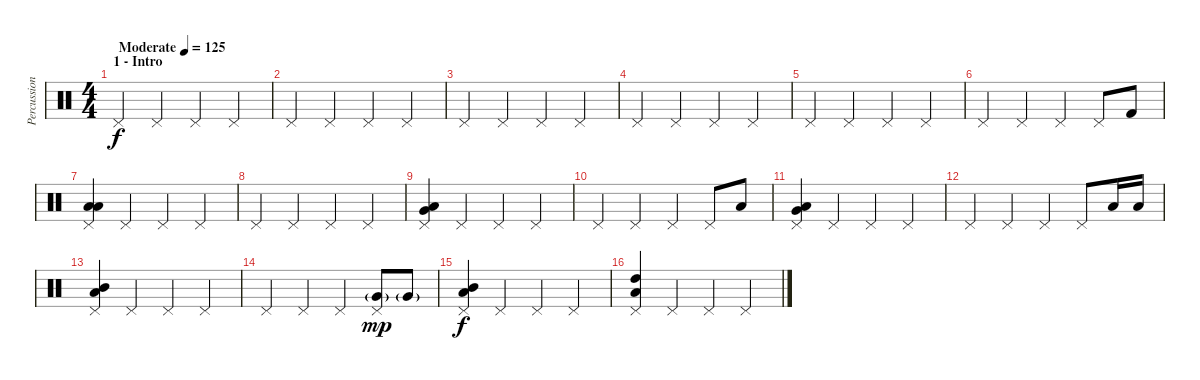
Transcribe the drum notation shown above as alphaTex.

\track ("Percussion" "Percussion") {instrument percussion}
\staff {score}
\articulation defaults
\ts (4 4)
\section ("" "1 - Intro")
\tempo (125 "Moderate")
\clef neutral
\ks c "Pedal Hi-Hat (hit)".4{dy f} "Pedal Hi-Hat (hit)".4 "Pedal Hi-Hat (hit)".4 "Pedal Hi-Hat (hit)".4
|
"Pedal Hi-Hat (hit)".4 "Pedal Hi-Hat (hit)".4 "Pedal Hi-Hat (hit)".4 "Pedal Hi-Hat (hit)".4 |
"Pedal Hi-Hat (hit)".4 "Pedal Hi-Hat (hit)".4 "Pedal Hi-Hat (hit)".4 "Pedal Hi-Hat (hit)".4 |
"Pedal Hi-Hat (hit)".4 "Pedal Hi-Hat (hit)".4 "Pedal Hi-Hat (hit)".4 "Pedal Hi-Hat (hit)".4 |
"Pedal Hi-Hat (hit)".4 "Pedal Hi-Hat (hit)".4 "Pedal Hi-Hat (hit)".4 "Pedal Hi-Hat (hit)".4 |
"Pedal Hi-Hat (hit)".4 "Pedal Hi-Hat (hit)".4 "Pedal Hi-Hat (hit)".4 "Pedal Hi-Hat (hit)".8 "Kick (hit) 2".8 |
("Low Tom (hit)" "Low Floor Tom (hit)" "Pedal Hi-Hat (hit)").4 "Pedal Hi-Hat (hit)".4 "Pedal Hi-Hat (hit)".4 "Pedal Hi-Hat (hit)".4 |
"Pedal Hi-Hat (hit)".4 "Pedal Hi-Hat (hit)".4 "Pedal Hi-Hat (hit)".4 "Pedal Hi-Hat (hit)".4 |
("Low Tom (hit)" "Very Low Tom (hit)" "Pedal Hi-Hat (hit)").4 "Pedal Hi-Hat (hit)".4 "Pedal Hi-Hat (hit)".4 "Pedal Hi-Hat (hit)".4 |
"Pedal Hi-Hat (hit)".4 "Pedal Hi-Hat (hit)".4 "Pedal Hi-Hat (hit)".4 "Pedal Hi-Hat (hit)".8 "Low Floor Tom (hit)".8 |
("Low Tom (hit)" "Very Low Tom (hit)" "Pedal Hi-Hat (hit)").4 "Pedal Hi-Hat (hit)".4 "Pedal Hi-Hat (hit)".4 "Pedal Hi-Hat (hit)".4 |
"Pedal Hi-Hat (hit)".4 "Pedal Hi-Hat (hit)".4 "Pedal Hi-Hat (hit)".4 "Pedal Hi-Hat (hit)".8 "Low Floor Tom (hit)".16 "Low Floor Tom (hit)".16 |
("Mid Tom (hit)" "Low Tom (hit)" "Pedal Hi-Hat (hit)").4 "Pedal Hi-Hat (hit)".4 "Pedal Hi-Hat (hit)".4 "Pedal Hi-Hat (hit)".4 |
"Pedal Hi-Hat (hit)".4 "Pedal Hi-Hat (hit)".4 "Pedal Hi-Hat (hit)".4 ("Very Low Tom (hit)"{g} "Pedal Hi-Hat (hit)").8{dy mp} "Very Low Tom (hit)"{g}.8 |
("Mid Tom (hit)" "Low Tom (hit)" "Pedal Hi-Hat (hit)").4{dy f} "Pedal Hi-Hat (hit)".4 "Pedal Hi-Hat (hit)".4 "Pedal Hi-Hat (hit)".4 |
("High Tom (hit)" "Low Tom (hit)" "Pedal Hi-Hat (hit)").4 "Pedal Hi-Hat (hit)".4 "Pedal Hi-Hat (hit)".4 "Pedal Hi-Hat (hit)".4
